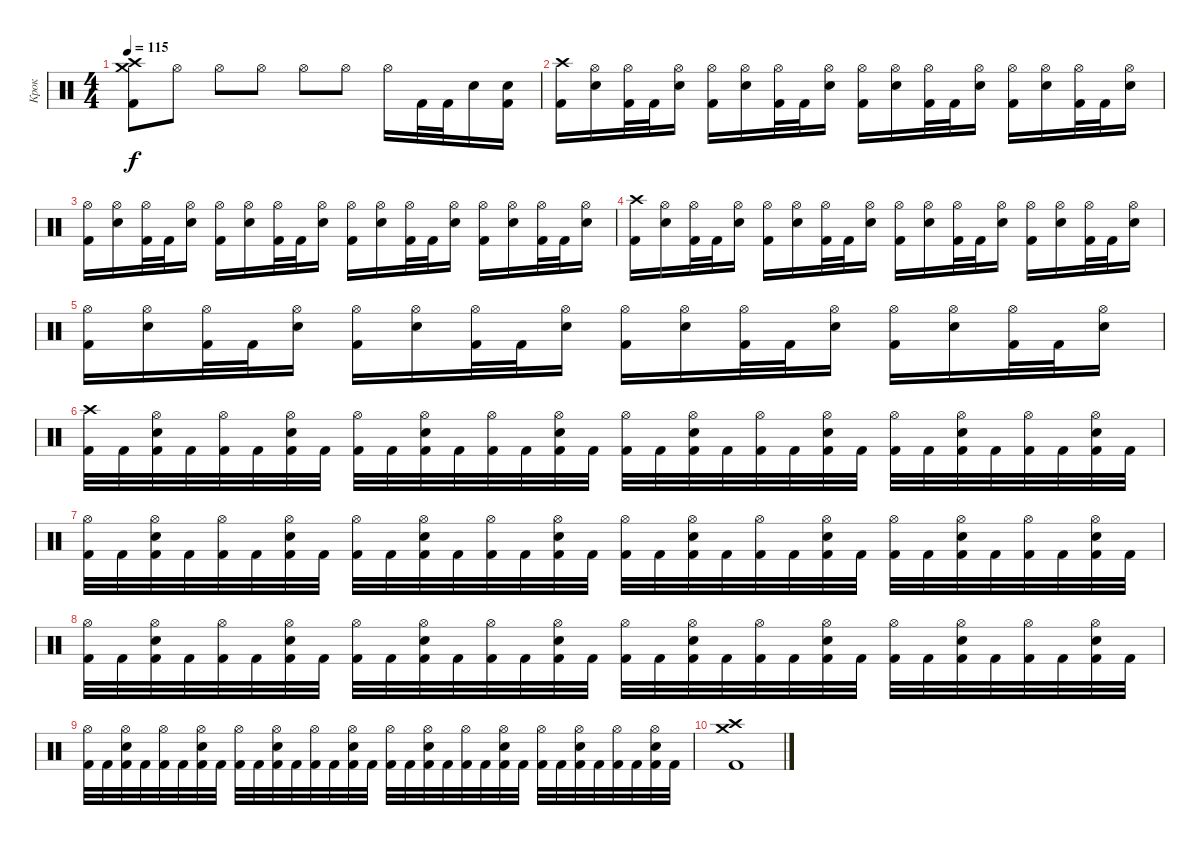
\track ("Крок" "Крок") {instrument percussion}
\staff {score}
\articulation defaults
\ts (4 4)
\tempo 115
\clef neutral
\ks c
("Crash high (hit)" "Crash medium (hit)" "Kick (hit) 2").8{dy f} "Hi-Hat (open)".8 "Hi-Hat (open)".8 "Hi-Hat (open)".8 "Hi-Hat (open)".8 "Hi-Hat (open)".8 "Hi-Hat (open)".16 "Kick (hit) 2".32 "Kick (hit) 2".32 "Electric Snare (hit)".16 ("Electric Snare (hit)" "Kick (hit) 2").16 |
("Crash high (hit)" "Kick (hit) 2").16 ("Hi-Hat (open)" "Electric Snare (hit)").16 ("Hi-Hat (open)" "Kick (hit) 2").32 "Kick (hit) 2".32 ("Hi-Hat (open)" "Electric Snare (hit)").16 ("Hi-Hat (open)" "Kick (hit) 2").16 ("Hi-Hat (open)" "Electric Snare (hit)").16 ("Hi-Hat (open)" "Kick (hit) 2").32 "Kick (hit) 2".32 ("Hi-Hat (open)" "Electric Snare (hit)").16 ("Hi-Hat (open)" "Kick (hit) 2").16 ("Hi-Hat (open)" "Electric Snare (hit)").16 ("Hi-Hat (open)" "Kick (hit) 2").32 "Kick (hit) 2".32 ("Hi-Hat (open)" "Electric Snare (hit)").16 ("Hi-Hat (open)" "Kick (hit) 2").16 ("Hi-Hat (open)" "Electric Snare (hit)").16 ("Hi-Hat (open)" "Kick (hit) 2").32 "Kick (hit) 2".32 ("Hi-Hat (open)" "Electric Snare (hit)").16 |
("Hi-Hat (open)" "Kick (hit) 2").16 ("Hi-Hat (open)" "Electric Snare (hit)").16 ("Hi-Hat (open)" "Kick (hit) 2").32 "Kick (hit) 2".32 ("Hi-Hat (open)" "Electric Snare (hit)").16 ("Hi-Hat (open)" "Kick (hit) 2").16 ("Hi-Hat (open)" "Electric Snare (hit)").16 ("Hi-Hat (open)" "Kick (hit) 2").32 "Kick (hit) 2".32 ("Hi-Hat (open)" "Electric Snare (hit)").16 ("Hi-Hat (open)" "Kick (hit) 2").16 ("Hi-Hat (open)" "Electric Snare (hit)").16 ("Hi-Hat (open)" "Kick (hit) 2").32 "Kick (hit) 2".32 ("Hi-Hat (open)" "Electric Snare (hit)").16 ("Hi-Hat (open)" "Kick (hit) 2").16 ("Hi-Hat (open)" "Electric Snare (hit)").16 ("Hi-Hat (open)" "Kick (hit) 2").32 "Kick (hit) 2".32 ("Hi-Hat (open)" "Electric Snare (hit)").16 |
("Crash high (hit)" "Kick (hit) 2").16 ("Hi-Hat (open)" "Electric Snare (hit)").16 ("Hi-Hat (open)" "Kick (hit) 2").32 "Kick (hit) 2".32 ("Hi-Hat (open)" "Electric Snare (hit)").16 ("Hi-Hat (open)" "Kick (hit) 2").16 ("Hi-Hat (open)" "Electric Snare (hit)").16 ("Hi-Hat (open)" "Kick (hit) 2").32 "Kick (hit) 2".32 ("Hi-Hat (open)" "Electric Snare (hit)").16 ("Hi-Hat (open)" "Kick (hit) 2").16 ("Hi-Hat (open)" "Electric Snare (hit)").16 ("Hi-Hat (open)" "Kick (hit) 2").32 "Kick (hit) 2".32 ("Hi-Hat (open)" "Electric Snare (hit)").16 ("Hi-Hat (open)" "Kick (hit) 2").16 ("Hi-Hat (open)" "Electric Snare (hit)").16 ("Hi-Hat (open)" "Kick (hit) 2").32 "Kick (hit) 2".32 ("Hi-Hat (open)" "Electric Snare (hit)").16 |
("Hi-Hat (open)" "Kick (hit) 2").16 ("Hi-Hat (open)" "Electric Snare (hit)").16 ("Hi-Hat (open)" "Kick (hit) 2").32 "Kick (hit) 2".32 ("Hi-Hat (open)" "Electric Snare (hit)").16 ("Hi-Hat (open)" "Kick (hit) 2").16 ("Hi-Hat (open)" "Electric Snare (hit)").16 ("Hi-Hat (open)" "Kick (hit) 2").32 "Kick (hit) 2".32 ("Hi-Hat (open)" "Electric Snare (hit)").16 ("Hi-Hat (open)" "Kick (hit) 2").16 ("Hi-Hat (open)" "Electric Snare (hit)").16 ("Hi-Hat (open)" "Kick (hit) 2").32 "Kick (hit) 2".32 ("Hi-Hat (open)" "Electric Snare (hit)").16 ("Hi-Hat (open)" "Kick (hit) 2").16 ("Hi-Hat (open)" "Electric Snare (hit)").16 ("Hi-Hat (open)" "Kick (hit) 2").32 "Kick (hit) 2".32 ("Hi-Hat (open)" "Electric Snare (hit)").16 |
("Crash high (hit)" "Kick (hit) 2").32 "Kick (hit) 2".32 ("Hi-Hat (open)" "Electric Snare (hit)" "Kick (hit) 2").32 "Kick (hit) 2".32 ("Hi-Hat (open)" "Kick (hit) 2").32 "Kick (hit) 2".32 ("Hi-Hat (open)" "Electric Snare (hit)" "Kick (hit) 2").32 "Kick (hit) 2".32 ("Hi-Hat (open)" "Kick (hit) 2").32 "Kick (hit) 2".32 ("Hi-Hat (open)" "Electric Snare (hit)" "Kick (hit) 2").32 "Kick (hit) 2".32 ("Hi-Hat (open)" "Kick (hit) 2").32 "Kick (hit) 2".32 ("Hi-Hat (open)" "Electric Snare (hit)" "Kick (hit) 2").32 "Kick (hit) 2".32 ("Hi-Hat (open)" "Kick (hit) 2").32 "Kick (hit) 2".32 ("Hi-Hat (open)" "Electric Snare (hit)" "Kick (hit) 2").32 "Kick (hit) 2".32 ("Hi-Hat (open)" "Kick (hit) 2").32 "Kick (hit) 2".32 ("Hi-Hat (open)" "Electric Snare (hit)" "Kick (hit) 2").32 "Kick (hit) 2".32 ("Hi-Hat (open)" "Kick (hit) 2").32 "Kick (hit) 2".32 ("Hi-Hat (open)" "Electric Snare (hit)" "Kick (hit) 2").32 "Kick (hit) 2".32 ("Hi-Hat (open)" "Kick (hit) 2").32 "Kick (hit) 2".32 ("Hi-Hat (open)" "Electric Snare (hit)" "Kick (hit) 2").32 "Kick (hit) 2".32 |
("Hi-Hat (open)" "Kick (hit) 2").32 "Kick (hit) 2".32 ("Hi-Hat (open)" "Electric Snare (hit)" "Kick (hit) 2").32 "Kick (hit) 2".32 ("Hi-Hat (open)" "Kick (hit) 2").32 "Kick (hit) 2".32 ("Hi-Hat (open)" "Electric Snare (hit)" "Kick (hit) 2").32 "Kick (hit) 2".32 ("Hi-Hat (open)" "Kick (hit) 2").32 "Kick (hit) 2".32 ("Hi-Hat (open)" "Electric Snare (hit)" "Kick (hit) 2").32 "Kick (hit) 2".32 ("Hi-Hat (open)" "Kick (hit) 2").32 "Kick (hit) 2".32 ("Hi-Hat (open)" "Electric Snare (hit)" "Kick (hit) 2").32 "Kick (hit) 2".32 ("Hi-Hat (open)" "Kick (hit) 2").32 "Kick (hit) 2".32 ("Hi-Hat (open)" "Electric Snare (hit)" "Kick (hit) 2").32 "Kick (hit) 2".32 ("Hi-Hat (open)" "Kick (hit) 2").32 "Kick (hit) 2".32 ("Hi-Hat (open)" "Electric Snare (hit)" "Kick (hit) 2").32 "Kick (hit) 2".32 ("Hi-Hat (open)" "Kick (hit) 2").32 "Kick (hit) 2".32 ("Hi-Hat (open)" "Electric Snare (hit)" "Kick (hit) 2").32 "Kick (hit) 2".32 ("Hi-Hat (open)" "Kick (hit) 2").32 "Kick (hit) 2".32 ("Hi-Hat (open)" "Electric Snare (hit)" "Kick (hit) 2").32 "Kick (hit) 2".32 |
("Hi-Hat (open)" "Kick (hit) 2").32 "Kick (hit) 2".32 ("Hi-Hat (open)" "Electric Snare (hit)" "Kick (hit) 2").32 "Kick (hit) 2".32 ("Hi-Hat (open)" "Kick (hit) 2").32 "Kick (hit) 2".32 ("Hi-Hat (open)" "Electric Snare (hit)" "Kick (hit) 2").32 "Kick (hit) 2".32 ("Hi-Hat (open)" "Kick (hit) 2").32 "Kick (hit) 2".32 ("Hi-Hat (open)" "Electric Snare (hit)" "Kick (hit) 2").32 "Kick (hit) 2".32 ("Hi-Hat (open)" "Kick (hit) 2").32 "Kick (hit) 2".32 ("Hi-Hat (open)" "Electric Snare (hit)" "Kick (hit) 2").32 "Kick (hit) 2".32 ("Hi-Hat (open)" "Kick (hit) 2").32 "Kick (hit) 2".32 ("Hi-Hat (open)" "Electric Snare (hit)" "Kick (hit) 2").32 "Kick (hit) 2".32 ("Hi-Hat (open)" "Kick (hit) 2").32 "Kick (hit) 2".32 ("Hi-Hat (open)" "Electric Snare (hit)" "Kick (hit) 2").32 "Kick (hit) 2".32 ("Hi-Hat (open)" "Kick (hit) 2").32 "Kick (hit) 2".32 ("Hi-Hat (open)" "Electric Snare (hit)" "Kick (hit) 2").32 "Kick (hit) 2".32 ("Hi-Hat (open)" "Kick (hit) 2").32 "Kick (hit) 2".32 ("Hi-Hat (open)" "Electric Snare (hit)" "Kick (hit) 2").32 "Kick (hit) 2".32 |
("Hi-Hat (open)" "Kick (hit) 2").32 "Kick (hit) 2".32 ("Hi-Hat (open)" "Electric Snare (hit)" "Kick (hit) 2").32 "Kick (hit) 2".32 ("Hi-Hat (open)" "Kick (hit) 2").32 "Kick (hit) 2".32 ("Hi-Hat (open)" "Electric Snare (hit)" "Kick (hit) 2").32 "Kick (hit) 2".32 ("Hi-Hat (open)" "Kick (hit) 2").32 "Kick (hit) 2".32 ("Hi-Hat (open)" "Electric Snare (hit)" "Kick (hit) 2").32 "Kick (hit) 2".32 ("Hi-Hat (open)" "Kick (hit) 2").32 "Kick (hit) 2".32 ("Hi-Hat (open)" "Electric Snare (hit)" "Kick (hit) 2").32 "Kick (hit) 2".32 ("Hi-Hat (open)" "Kick (hit) 2").32 "Kick (hit) 2".32 ("Hi-Hat (open)" "Electric Snare (hit)" "Kick (hit) 2").32 "Kick (hit) 2".32 ("Hi-Hat (open)" "Kick (hit) 2").32 "Kick (hit) 2".32 ("Hi-Hat (open)" "Electric Snare (hit)" "Kick (hit) 2").32 "Kick (hit) 2".32 ("Hi-Hat (open)" "Kick (hit) 2").32 "Kick (hit) 2".32 ("Hi-Hat (open)" "Electric Snare (hit)" "Kick (hit) 2").32 "Kick (hit) 2".32 ("Hi-Hat (open)" "Kick (hit) 2").32 "Kick (hit) 2".32 ("Hi-Hat (open)" "Electric Snare (hit)" "Kick (hit) 2").32 "Kick (hit) 2".32 |
("Crash high (hit)" "Crash medium (hit)" "Kick (hit) 2").1
